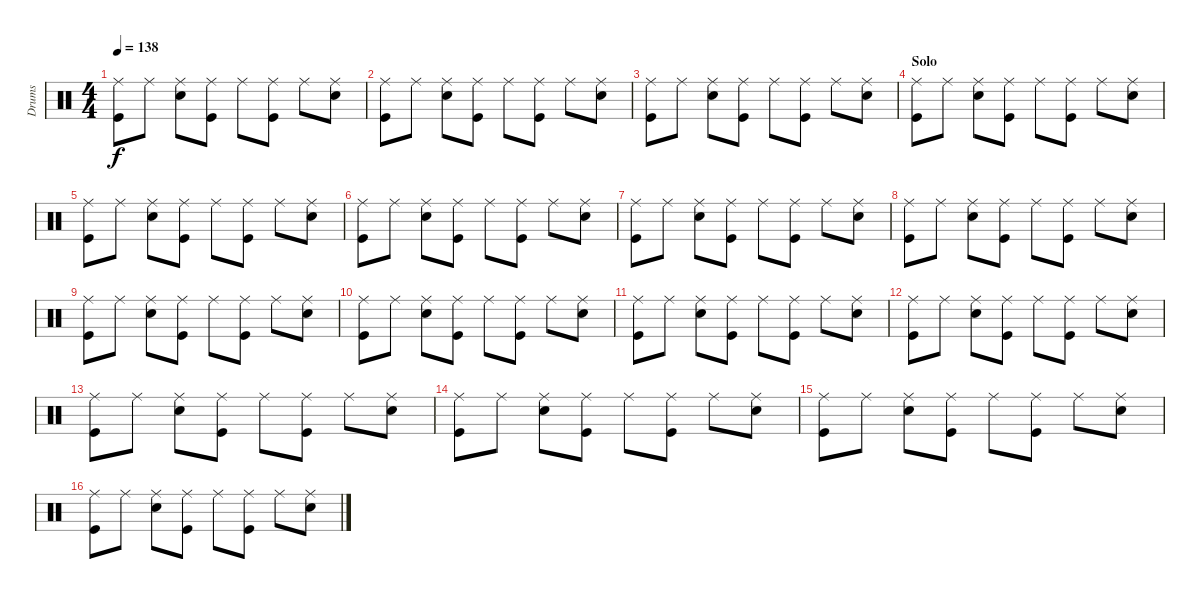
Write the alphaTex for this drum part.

\track ("Drums" "Drums") {instrument percussion}
\staff {score}
\articulation defaults
\ts (4 4)
\tempo 138
\clef neutral
\ks c
("Ride (middle)" "Kick (hit)").8{dy f} "Ride (middle)".8 ("Ride (middle)" "Snare (hit) 2").8 ("Ride (middle)" "Kick (hit)").8 "Ride (middle)".8 ("Ride (middle)" "Kick (hit)").8 "Ride (middle)".8 ("Ride (middle)" "Snare (hit) 2").8 |
("Ride (middle)" "Kick (hit)").8 "Ride (middle)".8 ("Ride (middle)" "Snare (hit) 2").8 ("Ride (middle)" "Kick (hit)").8 "Ride (middle)".8 ("Ride (middle)" "Kick (hit)").8 "Ride (middle)".8 ("Ride (middle)" "Snare (hit) 2").8 |
("Ride (middle)" "Kick (hit)").8 "Ride (middle)".8 ("Ride (middle)" "Snare (hit) 2").8 ("Ride (middle)" "Kick (hit)").8 "Ride (middle)".8 ("Ride (middle)" "Kick (hit)").8 "Ride (middle)".8 ("Ride (middle)" "Snare (hit) 2").8 |
\section ("" "Solo")
("Ride (middle)" "Kick (hit)").8 "Ride (middle)".8 ("Ride (middle)" "Snare (hit) 2").8 ("Ride (middle)" "Kick (hit)").8 "Ride (middle)".8 ("Ride (middle)" "Kick (hit)").8 "Ride (middle)".8 ("Ride (middle)" "Snare (hit) 2").8 |
("Ride (middle)" "Kick (hit)").8 "Ride (middle)".8 ("Ride (middle)" "Snare (hit) 2").8 ("Ride (middle)" "Kick (hit)").8 "Ride (middle)".8 ("Ride (middle)" "Kick (hit)").8 "Ride (middle)".8 ("Ride (middle)" "Snare (hit) 2").8 |
("Ride (middle)" "Kick (hit)").8 "Ride (middle)".8 ("Ride (middle)" "Snare (hit) 2").8 ("Ride (middle)" "Kick (hit)").8 "Ride (middle)".8 ("Ride (middle)" "Kick (hit)").8 "Ride (middle)".8 ("Ride (middle)" "Snare (hit) 2").8 |
("Ride (middle)" "Kick (hit)").8 "Ride (middle)".8 ("Ride (middle)" "Snare (hit) 2").8 ("Ride (middle)" "Kick (hit)").8 "Ride (middle)".8 ("Ride (middle)" "Kick (hit)").8 "Ride (middle)".8 ("Ride (middle)" "Snare (hit) 2").8 |
("Ride (middle)" "Kick (hit)").8 "Ride (middle)".8 ("Ride (middle)" "Snare (hit) 2").8 ("Ride (middle)" "Kick (hit)").8 "Ride (middle)".8 ("Ride (middle)" "Kick (hit)").8 "Ride (middle)".8 ("Ride (middle)" "Snare (hit) 2").8 |
("Ride (middle)" "Kick (hit)").8 "Ride (middle)".8 ("Ride (middle)" "Snare (hit) 2").8 ("Ride (middle)" "Kick (hit)").8 "Ride (middle)".8 ("Ride (middle)" "Kick (hit)").8 "Ride (middle)".8 ("Ride (middle)" "Snare (hit) 2").8 |
("Ride (middle)" "Kick (hit)").8 "Ride (middle)".8 ("Ride (middle)" "Snare (hit) 2").8 ("Ride (middle)" "Kick (hit)").8 "Ride (middle)".8 ("Ride (middle)" "Kick (hit)").8 "Ride (middle)".8 ("Ride (middle)" "Snare (hit) 2").8 |
("Ride (middle)" "Kick (hit)").8 "Ride (middle)".8 ("Ride (middle)" "Snare (hit) 2").8 ("Ride (middle)" "Kick (hit)").8 "Ride (middle)".8 ("Ride (middle)" "Kick (hit)").8 "Ride (middle)".8 ("Ride (middle)" "Snare (hit) 2").8 |
("Ride (middle)" "Kick (hit)").8 "Ride (middle)".8 ("Ride (middle)" "Snare (hit) 2").8 ("Ride (middle)" "Kick (hit)").8 "Ride (middle)".8 ("Ride (middle)" "Kick (hit)").8 "Ride (middle)".8 ("Ride (middle)" "Snare (hit) 2").8 |
("Ride (middle)" "Kick (hit)").8 "Ride (middle)".8 ("Ride (middle)" "Snare (hit) 2").8 ("Ride (middle)" "Kick (hit)").8 "Ride (middle)".8 ("Ride (middle)" "Kick (hit)").8 "Ride (middle)".8 ("Ride (middle)" "Snare (hit) 2").8 |
("Ride (middle)" "Kick (hit)").8 "Ride (middle)".8 ("Ride (middle)" "Snare (hit) 2").8 ("Ride (middle)" "Kick (hit)").8 "Ride (middle)".8 ("Ride (middle)" "Kick (hit)").8 "Ride (middle)".8 ("Ride (middle)" "Snare (hit) 2").8 |
("Ride (middle)" "Kick (hit)").8 "Ride (middle)".8 ("Ride (middle)" "Snare (hit) 2").8 ("Ride (middle)" "Kick (hit)").8 "Ride (middle)".8 ("Ride (middle)" "Kick (hit)").8 "Ride (middle)".8 ("Ride (middle)" "Snare (hit) 2").8 |
("Ride (middle)" "Kick (hit)").8 "Ride (middle)".8 ("Ride (middle)" "Snare (hit) 2").8 ("Ride (middle)" "Kick (hit)").8 "Ride (middle)".8 ("Ride (middle)" "Kick (hit)").8 "Ride (middle)".8 ("Ride (middle)" "Snare (hit) 2").8
